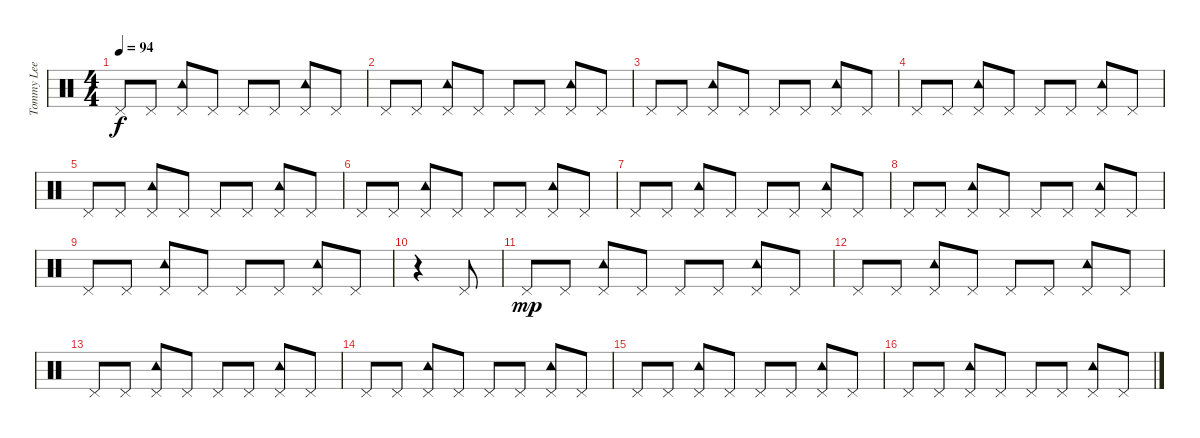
\track ("Tommy Lee" "Tommy Lee") {instrument percussion}
\staff {score}
\articulation defaults
\ts (4 4)
\tempo 94
\clef neutral
\ks c "Pedal Hi-Hat (hit)".8{dy f} "Pedal Hi-Hat (hit)".8
("Pedal Hi-Hat (hit)" "Tambourine (hit)").8 "Pedal Hi-Hat (hit)".8 "Pedal Hi-Hat (hit)".8 "Pedal Hi-Hat (hit)".8 ("Pedal Hi-Hat (hit)" "Tambourine (hit)").8 "Pedal Hi-Hat (hit)".8 |
"Pedal Hi-Hat (hit)".8 "Pedal Hi-Hat (hit)".8 ("Pedal Hi-Hat (hit)" "Tambourine (hit)").8 "Pedal Hi-Hat (hit)".8 "Pedal Hi-Hat (hit)".8 "Pedal Hi-Hat (hit)".8 ("Pedal Hi-Hat (hit)" "Tambourine (hit)").8 "Pedal Hi-Hat (hit)".8 |
"Pedal Hi-Hat (hit)".8 "Pedal Hi-Hat (hit)".8 ("Pedal Hi-Hat (hit)" "Tambourine (hit)").8 "Pedal Hi-Hat (hit)".8 "Pedal Hi-Hat (hit)".8 "Pedal Hi-Hat (hit)".8 ("Pedal Hi-Hat (hit)" "Tambourine (hit)").8 "Pedal Hi-Hat (hit)".8 |
"Pedal Hi-Hat (hit)".8 "Pedal Hi-Hat (hit)".8 ("Pedal Hi-Hat (hit)" "Tambourine (hit)").8 "Pedal Hi-Hat (hit)".8 "Pedal Hi-Hat (hit)".8 "Pedal Hi-Hat (hit)".8 ("Pedal Hi-Hat (hit)" "Tambourine (hit)").8 "Pedal Hi-Hat (hit)".8 |
"Pedal Hi-Hat (hit)".8 "Pedal Hi-Hat (hit)".8 ("Pedal Hi-Hat (hit)" "Tambourine (hit)").8 "Pedal Hi-Hat (hit)".8 "Pedal Hi-Hat (hit)".8 "Pedal Hi-Hat (hit)".8 ("Pedal Hi-Hat (hit)" "Tambourine (hit)").8 "Pedal Hi-Hat (hit)".8 |
"Pedal Hi-Hat (hit)".8 "Pedal Hi-Hat (hit)".8 ("Pedal Hi-Hat (hit)" "Tambourine (hit)").8 "Pedal Hi-Hat (hit)".8 "Pedal Hi-Hat (hit)".8 "Pedal Hi-Hat (hit)".8 ("Pedal Hi-Hat (hit)" "Tambourine (hit)").8 "Pedal Hi-Hat (hit)".8 |
"Pedal Hi-Hat (hit)".8 "Pedal Hi-Hat (hit)".8 ("Pedal Hi-Hat (hit)" "Tambourine (hit)").8 "Pedal Hi-Hat (hit)".8 "Pedal Hi-Hat (hit)".8 "Pedal Hi-Hat (hit)".8 ("Pedal Hi-Hat (hit)" "Tambourine (hit)").8 "Pedal Hi-Hat (hit)".8 |
"Pedal Hi-Hat (hit)".8 "Pedal Hi-Hat (hit)".8 ("Pedal Hi-Hat (hit)" "Tambourine (hit)").8 "Pedal Hi-Hat (hit)".8 "Pedal Hi-Hat (hit)".8 "Pedal Hi-Hat (hit)".8 ("Pedal Hi-Hat (hit)" "Tambourine (hit)").8 "Pedal Hi-Hat (hit)".8 |
"Pedal Hi-Hat (hit)".8 "Pedal Hi-Hat (hit)".8 ("Pedal Hi-Hat (hit)" "Tambourine (hit)").8 "Pedal Hi-Hat (hit)".8 "Pedal Hi-Hat (hit)".8 "Pedal Hi-Hat (hit)".8 ("Pedal Hi-Hat (hit)" "Tambourine (hit)").8 "Pedal Hi-Hat (hit)".8 |
r.4 "Pedal Hi-Hat (hit)".8 |
"Pedal Hi-Hat (hit)".8{dy mp} "Pedal Hi-Hat (hit)".8 ("Pedal Hi-Hat (hit)" "Tambourine (hit)").8 "Pedal Hi-Hat (hit)".8 "Pedal Hi-Hat (hit)".8 "Pedal Hi-Hat (hit)".8 ("Pedal Hi-Hat (hit)" "Tambourine (hit)").8 "Pedal Hi-Hat (hit)".8 |
"Pedal Hi-Hat (hit)".8 "Pedal Hi-Hat (hit)".8 ("Pedal Hi-Hat (hit)" "Tambourine (hit)").8 "Pedal Hi-Hat (hit)".8 "Pedal Hi-Hat (hit)".8 "Pedal Hi-Hat (hit)".8 ("Pedal Hi-Hat (hit)" "Tambourine (hit)").8 "Pedal Hi-Hat (hit)".8 |
"Pedal Hi-Hat (hit)".8 "Pedal Hi-Hat (hit)".8 ("Pedal Hi-Hat (hit)" "Tambourine (hit)").8 "Pedal Hi-Hat (hit)".8 "Pedal Hi-Hat (hit)".8 "Pedal Hi-Hat (hit)".8 ("Pedal Hi-Hat (hit)" "Tambourine (hit)").8 "Pedal Hi-Hat (hit)".8 |
"Pedal Hi-Hat (hit)".8 "Pedal Hi-Hat (hit)".8 ("Pedal Hi-Hat (hit)" "Tambourine (hit)").8 "Pedal Hi-Hat (hit)".8 "Pedal Hi-Hat (hit)".8 "Pedal Hi-Hat (hit)".8 ("Pedal Hi-Hat (hit)" "Tambourine (hit)").8 "Pedal Hi-Hat (hit)".8 |
"Pedal Hi-Hat (hit)".8 "Pedal Hi-Hat (hit)".8 ("Pedal Hi-Hat (hit)" "Tambourine (hit)").8 "Pedal Hi-Hat (hit)".8 "Pedal Hi-Hat (hit)".8 "Pedal Hi-Hat (hit)".8 ("Pedal Hi-Hat (hit)" "Tambourine (hit)").8 "Pedal Hi-Hat (hit)".8 |
"Pedal Hi-Hat (hit)".8 "Pedal Hi-Hat (hit)".8 ("Pedal Hi-Hat (hit)" "Tambourine (hit)").8 "Pedal Hi-Hat (hit)".8 "Pedal Hi-Hat (hit)".8 "Pedal Hi-Hat (hit)".8 ("Pedal Hi-Hat (hit)" "Tambourine (hit)").8 "Pedal Hi-Hat (hit)".8
